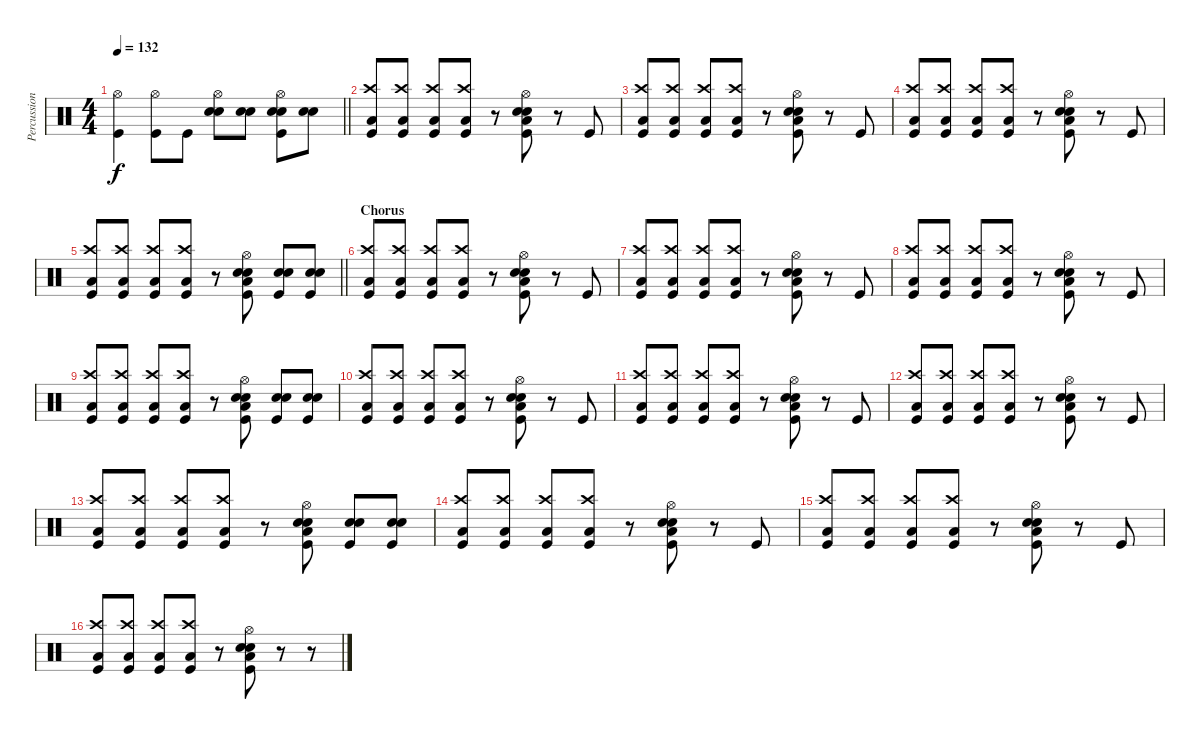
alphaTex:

\track ("Percussion" "Percussion") {instrument percussion}
\staff {score}
\articulation defaults
\ts (4 4)
\tempo 132
\clef neutral
\barLineRight lightlight
\ks c
("Hi-Hat (open)" "Kick (hit)").4{dy f} ("Hi-Hat (open)" "Kick (hit)").8 "Kick (hit)".8 ("Hi-Hat (open)" "Electric Snare (hit)" "Snare (hit) 2").8 ("Electric Snare (hit)" "Snare (hit) 2").8 ("Hi-Hat (open)" "Electric Snare (hit)" "Snare (hit) 2" "Kick (hit)").8 ("Electric Snare (hit)" "Snare (hit) 2").8 |
("Crash high (hit)" "Low Floor Tom (hit)" "Kick (hit)").8 ("Crash high (hit)" "Low Floor Tom (hit)" "Kick (hit)").8 ("Crash high (hit)" "Low Floor Tom (hit)" "Kick (hit)").8 ("Crash high (hit)" "Low Floor Tom (hit)" "Kick (hit)").8 r.8 ("Hi-Hat (open)" "Electric Snare (hit)" "Snare (hit) 2" "Low Floor Tom (hit)" "Kick (hit)").8 r.8 "Kick (hit)".8 |
("Crash high (hit)" "Low Floor Tom (hit)" "Kick (hit)").8 ("Crash high (hit)" "Low Floor Tom (hit)" "Kick (hit)").8 ("Crash high (hit)" "Low Floor Tom (hit)" "Kick (hit)").8 ("Crash high (hit)" "Low Floor Tom (hit)" "Kick (hit)").8 r.8 ("Hi-Hat (open)" "Electric Snare (hit)" "Snare (hit) 2" "Low Floor Tom (hit)" "Kick (hit)").8 r.8 "Kick (hit)".8 |
("Crash high (hit)" "Low Floor Tom (hit)" "Kick (hit)").8 ("Crash high (hit)" "Low Floor Tom (hit)" "Kick (hit)").8 ("Crash high (hit)" "Low Floor Tom (hit)" "Kick (hit)").8 ("Crash high (hit)" "Low Floor Tom (hit)" "Kick (hit)").8 r.8 ("Hi-Hat (open)" "Electric Snare (hit)" "Snare (hit) 2" "Low Floor Tom (hit)" "Kick (hit)").8 r.8 "Kick (hit)".8 |
\barLineRight lightlight
("Crash high (hit)" "Low Floor Tom (hit)" "Kick (hit)").8 ("Crash high (hit)" "Low Floor Tom (hit)" "Kick (hit)").8 ("Crash high (hit)" "Low Floor Tom (hit)" "Kick (hit)").8 ("Crash high (hit)" "Low Floor Tom (hit)" "Kick (hit)").8 r.8 ("Hi-Hat (open)" "Electric Snare (hit)" "Snare (hit) 2" "Low Floor Tom (hit)" "Kick (hit)").8 ("Electric Snare (hit)" "Snare (hit) 2" "Kick (hit)").8 ("Electric Snare (hit)" "Snare (hit) 2" "Kick (hit)").8 |
\section ("" "Chorus")
("Crash high (hit)" "Low Floor Tom (hit)" "Kick (hit)").8 ("Crash high (hit)" "Low Floor Tom (hit)" "Kick (hit)").8 ("Crash high (hit)" "Low Floor Tom (hit)" "Kick (hit)").8 ("Crash high (hit)" "Low Floor Tom (hit)" "Kick (hit)").8 r.8 ("Hi-Hat (open)" "Electric Snare (hit)" "Snare (hit) 2" "Low Floor Tom (hit)" "Kick (hit)").8 r.8 "Kick (hit)".8 |
("Crash high (hit)" "Low Floor Tom (hit)" "Kick (hit)").8 ("Crash high (hit)" "Low Floor Tom (hit)" "Kick (hit)").8 ("Crash high (hit)" "Low Floor Tom (hit)" "Kick (hit)").8 ("Crash high (hit)" "Low Floor Tom (hit)" "Kick (hit)").8 r.8 ("Hi-Hat (open)" "Electric Snare (hit)" "Snare (hit) 2" "Low Floor Tom (hit)" "Kick (hit)").8 r.8 "Kick (hit)".8 |
("Crash high (hit)" "Low Floor Tom (hit)" "Kick (hit)").8 ("Crash high (hit)" "Low Floor Tom (hit)" "Kick (hit)").8 ("Crash high (hit)" "Low Floor Tom (hit)" "Kick (hit)").8 ("Crash high (hit)" "Low Floor Tom (hit)" "Kick (hit)").8 r.8 ("Hi-Hat (open)" "Electric Snare (hit)" "Snare (hit) 2" "Low Floor Tom (hit)" "Kick (hit)").8 r.8 "Kick (hit)".8 |
("Crash high (hit)" "Low Floor Tom (hit)" "Kick (hit)").8 ("Crash high (hit)" "Low Floor Tom (hit)" "Kick (hit)").8 ("Crash high (hit)" "Low Floor Tom (hit)" "Kick (hit)").8 ("Crash high (hit)" "Low Floor Tom (hit)" "Kick (hit)").8 r.8 ("Hi-Hat (open)" "Electric Snare (hit)" "Snare (hit) 2" "Low Floor Tom (hit)" "Kick (hit)").8 ("Electric Snare (hit)" "Snare (hit) 2" "Kick (hit)").8 ("Electric Snare (hit)" "Snare (hit) 2" "Kick (hit)").8 |
("Crash high (hit)" "Low Floor Tom (hit)" "Kick (hit)").8 ("Crash high (hit)" "Low Floor Tom (hit)" "Kick (hit)").8 ("Crash high (hit)" "Low Floor Tom (hit)" "Kick (hit)").8 ("Crash high (hit)" "Low Floor Tom (hit)" "Kick (hit)").8 r.8 ("Hi-Hat (open)" "Electric Snare (hit)" "Snare (hit) 2" "Low Floor Tom (hit)" "Kick (hit)").8 r.8 "Kick (hit)".8 |
("Crash high (hit)" "Low Floor Tom (hit)" "Kick (hit)").8 ("Crash high (hit)" "Low Floor Tom (hit)" "Kick (hit)").8 ("Crash high (hit)" "Low Floor Tom (hit)" "Kick (hit)").8 ("Crash high (hit)" "Low Floor Tom (hit)" "Kick (hit)").8 r.8 ("Hi-Hat (open)" "Electric Snare (hit)" "Snare (hit) 2" "Low Floor Tom (hit)" "Kick (hit)").8 r.8 "Kick (hit)".8 |
("Crash high (hit)" "Low Floor Tom (hit)" "Kick (hit)").8 ("Crash high (hit)" "Low Floor Tom (hit)" "Kick (hit)").8 ("Crash high (hit)" "Low Floor Tom (hit)" "Kick (hit)").8 ("Crash high (hit)" "Low Floor Tom (hit)" "Kick (hit)").8 r.8 ("Hi-Hat (open)" "Electric Snare (hit)" "Snare (hit) 2" "Low Floor Tom (hit)" "Kick (hit)").8 r.8 "Kick (hit)".8 |
("Crash high (hit)" "Low Floor Tom (hit)" "Kick (hit)").8 ("Crash high (hit)" "Low Floor Tom (hit)" "Kick (hit)").8 ("Crash high (hit)" "Low Floor Tom (hit)" "Kick (hit)").8 ("Crash high (hit)" "Low Floor Tom (hit)" "Kick (hit)").8 r.8 ("Hi-Hat (open)" "Electric Snare (hit)" "Snare (hit) 2" "Low Floor Tom (hit)" "Kick (hit)").8 ("Electric Snare (hit)" "Snare (hit) 2" "Kick (hit)").8 ("Electric Snare (hit)" "Snare (hit) 2" "Kick (hit)").8 |
("Crash high (hit)" "Low Floor Tom (hit)" "Kick (hit)").8 ("Crash high (hit)" "Low Floor Tom (hit)" "Kick (hit)").8 ("Crash high (hit)" "Low Floor Tom (hit)" "Kick (hit)").8 ("Crash high (hit)" "Low Floor Tom (hit)" "Kick (hit)").8 r.8 ("Hi-Hat (open)" "Electric Snare (hit)" "Snare (hit) 2" "Low Floor Tom (hit)" "Kick (hit)").8 r.8 "Kick (hit)".8 |
("Crash high (hit)" "Low Floor Tom (hit)" "Kick (hit)").8 ("Crash high (hit)" "Low Floor Tom (hit)" "Kick (hit)").8 ("Crash high (hit)" "Low Floor Tom (hit)" "Kick (hit)").8 ("Crash high (hit)" "Low Floor Tom (hit)" "Kick (hit)").8 r.8 ("Hi-Hat (open)" "Electric Snare (hit)" "Snare (hit) 2" "Low Floor Tom (hit)" "Kick (hit)").8 r.8 "Kick (hit)".8 |
("Crash high (hit)" "Low Floor Tom (hit)" "Kick (hit)").8 ("Crash high (hit)" "Low Floor Tom (hit)" "Kick (hit)").8 ("Crash high (hit)" "Low Floor Tom (hit)" "Kick (hit)").8 ("Crash high (hit)" "Low Floor Tom (hit)" "Kick (hit)").8 r.8 ("Hi-Hat (open)" "Electric Snare (hit)" "Snare (hit) 2" "Low Floor Tom (hit)" "Kick (hit)").8 r.8 r.8
